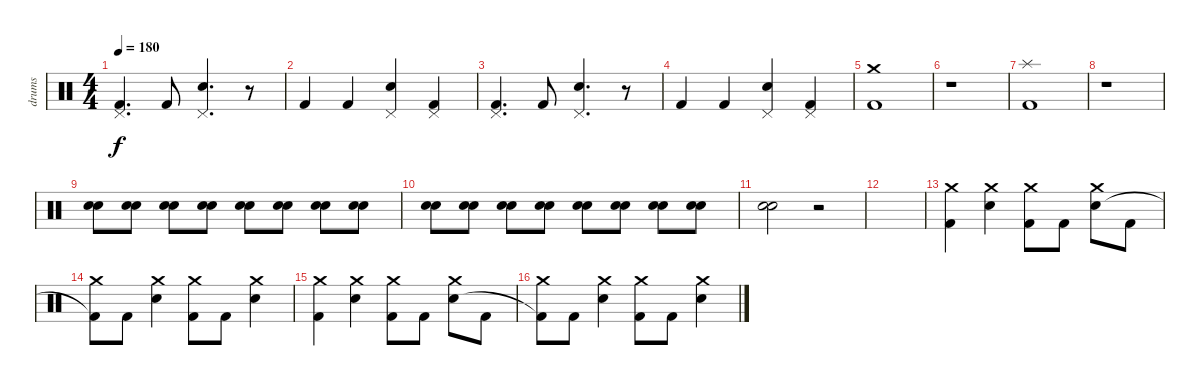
\track ("drums" "drums") {instrument percussion}
\staff {score}
\articulation defaults
\ts (4 4)
\tempo 180
\clef neutral
\ks c
("Pedal Hi-Hat (hit)" "Kick (hit) 2").4{d dy f} "Kick (hit) 2".8 ("Pedal Hi-Hat (hit)" "Electric Snare (hit)").4{d} r.8 |
"Kick (hit) 2".4 "Kick (hit) 2".4 ("Pedal Hi-Hat (hit)" "Electric Snare (hit)").4 ("Pedal Hi-Hat (hit)" "Kick (hit) 2").4 |
("Pedal Hi-Hat (hit)" "Kick (hit) 2").4{d} "Kick (hit) 2".8 ("Pedal Hi-Hat (hit)" "Electric Snare (hit)").4{d} r.8 |
"Kick (hit) 2".4 "Kick (hit) 2".4 ("Pedal Hi-Hat (hit)" "Electric Snare (hit)").4 ("Pedal Hi-Hat (hit)" "Kick (hit) 2").4 |
("Crash medium (hit)" "Kick (hit) 2").1 |
r.1 |
("Splash (hit)" "Kick (hit) 2").1 |
r.1 |
("Electric Snare (hit)" "Electric Snare (hit)").8 ("Electric Snare (hit)" "Electric Snare (hit)").8 ("Electric Snare (hit)" "Electric Snare (hit)").8 ("Electric Snare (hit)" "Electric Snare (hit)").8 ("Electric Snare (hit)" "Electric Snare (hit)").8 ("Electric Snare (hit)" "Electric Snare (hit)").8 ("Electric Snare (hit)" "Electric Snare (hit)").8 ("Electric Snare (hit)" "Electric Snare (hit)").8 |
("Electric Snare (hit)" "Electric Snare (hit)").8 ("Electric Snare (hit)" "Electric Snare (hit)").8 ("Electric Snare (hit)" "Electric Snare (hit)").8 ("Electric Snare (hit)" "Electric Snare (hit)").8 ("Electric Snare (hit)" "Electric Snare (hit)").8 ("Electric Snare (hit)" "Electric Snare (hit)").8 ("Electric Snare (hit)" "Electric Snare (hit)").8 ("Electric Snare (hit)" "Electric Snare (hit)").8 |
("Electric Snare (hit)" "Electric Snare (hit)").2 r.2 |
|
("Crash medium (hit)" "Kick (hit) 2").4 ("Crash medium (hit)" "Electric Snare (hit)").4 ("Crash medium (hit)" "Kick (hit) 2").8 "Kick (hit) 2".8 ("Crash medium (hit)" "Electric Snare (hit)").8 "Kick (hit) 2".8 |
("Crash medium (hit)" "Kick (hit) 2"{t}).8 "Kick (hit) 2".8 ("Crash medium (hit)" "Electric Snare (hit)").4 ("Crash medium (hit)" "Kick (hit) 2").8 "Kick (hit) 2".8 ("Crash medium (hit)" "Electric Snare (hit)").4 |
("Crash medium (hit)" "Kick (hit) 2").4 ("Crash medium (hit)" "Electric Snare (hit)").4 ("Crash medium (hit)" "Kick (hit) 2").8 "Kick (hit) 2".8 ("Crash medium (hit)" "Electric Snare (hit)").8 "Kick (hit) 2".8 |
("Crash medium (hit)" "Kick (hit) 2"{t}).8 "Kick (hit) 2".8 ("Crash medium (hit)" "Electric Snare (hit)").4 ("Crash medium (hit)" "Kick (hit) 2").8 "Kick (hit) 2".8 ("Crash medium (hit)" "Electric Snare (hit)").4
